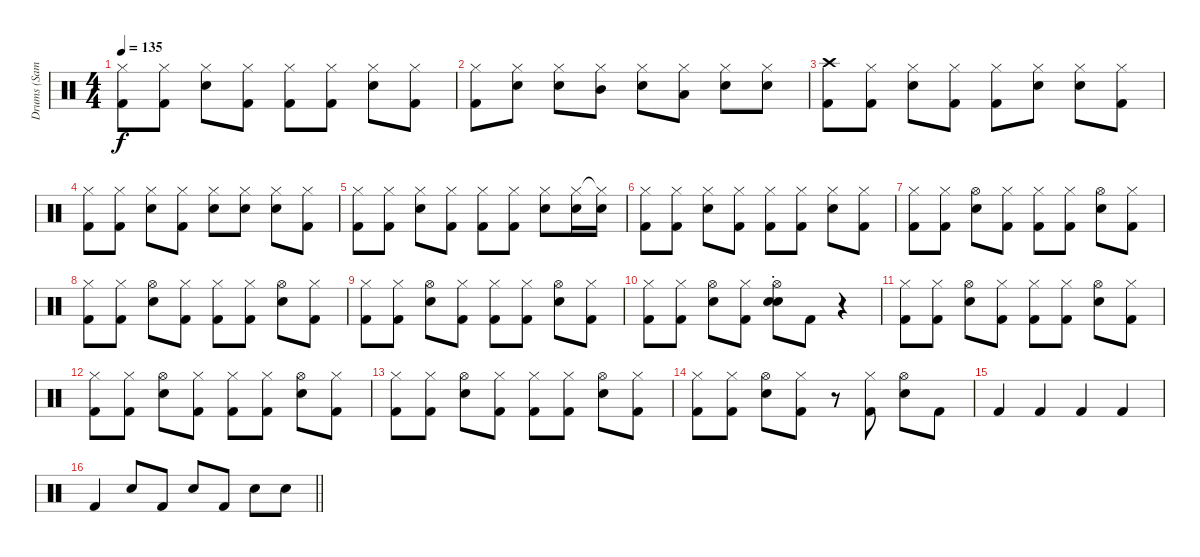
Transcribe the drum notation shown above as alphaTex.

\track ("Drums (Sam Fogarino)" "Drums (Sam") {instrument percussion}
\staff {score}
\articulation defaults
\ts (4 4)
\tempo 135
\clef neutral
\ks c
("Hi-Hat (closed)" "Kick (hit) 2").8{dy f} ("Hi-Hat (closed)" "Kick (hit) 2").8 ("Hi-Hat (closed)" "Snare (hit) 2").8 ("Hi-Hat (closed)" "Kick (hit) 2").8 ("Hi-Hat (closed)" "Kick (hit) 2").8 ("Hi-Hat (closed)" "Kick (hit) 2").8 ("Hi-Hat (closed)" "Snare (hit) 2").8 ("Hi-Hat (closed)" "Kick (hit) 2").8 |
("Hi-Hat (closed)" "Kick (hit) 2").8 ("Hi-Hat (closed)" "Snare (hit) 2").8 ("Hi-Hat (closed)" "Snare (hit) 2").8 ("Hi-Hat (closed)" "Mid Tom (hit)").8 ("Hi-Hat (closed)" "Snare (hit) 2").8 ("Hi-Hat (closed)" "Low Tom (hit)").8 ("Hi-Hat (closed)" "Snare (hit) 2").8 ("Hi-Hat (closed)" "Snare (hit) 2").8 |
("Crash high (hit)" "Kick (hit) 2").8 ("Hi-Hat (closed)" "Kick (hit) 2").8 ("Hi-Hat (closed)" "Snare (hit) 2").8 ("Hi-Hat (closed)" "Kick (hit) 2").8 ("Hi-Hat (closed)" "Kick (hit) 2").8 ("Hi-Hat (closed)" "Snare (hit) 2").8 ("Hi-Hat (closed)" "Snare (hit) 2").8 ("Hi-Hat (closed)" "Kick (hit) 2").8 |
("Hi-Hat (closed)" "Kick (hit) 2").8 ("Hi-Hat (closed)" "Kick (hit) 2").8 ("Hi-Hat (closed)" "Snare (hit) 2").8 ("Hi-Hat (closed)" "Kick (hit) 2").8 ("Hi-Hat (closed)" "Snare (hit) 2").8 ("Hi-Hat (closed)" "Snare (hit) 2").8 ("Hi-Hat (closed)" "Snare (hit) 2").8 ("Hi-Hat (closed)" "Kick (hit) 2").8 |
("Hi-Hat (closed)" "Kick (hit) 2").8 ("Hi-Hat (closed)" "Kick (hit) 2").8 ("Hi-Hat (closed)" "Snare (hit) 2").8 ("Hi-Hat (closed)" "Kick (hit) 2").8 ("Hi-Hat (closed)" "Kick (hit) 2").8 ("Hi-Hat (closed)" "Kick (hit) 2").8 ("Hi-Hat (closed)" "Snare (hit) 2").8 ("Hi-Hat (closed)" "Snare (hit) 2").16 ("Hi-Hat (closed)"{t} "Snare (hit) 2").16 |
("Hi-Hat (closed)" "Kick (hit) 2").8 ("Hi-Hat (closed)" "Kick (hit) 2").8 ("Hi-Hat (closed)" "Snare (hit) 2").8 ("Hi-Hat (closed)" "Kick (hit) 2").8 ("Hi-Hat (closed)" "Kick (hit) 2").8 ("Hi-Hat (closed)" "Kick (hit) 2").8 ("Hi-Hat (closed)" "Snare (hit) 2").8 ("Hi-Hat (closed)" "Kick (hit) 2").8 |
("Hi-Hat (closed)" "Kick (hit) 2").8 ("Hi-Hat (closed)" "Kick (hit) 2").8 ("Hi-Hat (open)" "Snare (hit) 2").8 ("Hi-Hat (closed)" "Kick (hit) 2").8 ("Hi-Hat (closed)" "Kick (hit) 2").8 ("Hi-Hat (closed)" "Kick (hit) 2").8 ("Hi-Hat (open)" "Snare (hit) 2").8 ("Hi-Hat (closed)" "Kick (hit) 2").8 |
("Hi-Hat (closed)" "Kick (hit) 2").8 ("Hi-Hat (closed)" "Kick (hit) 2").8 ("Hi-Hat (open)" "Snare (hit) 2").8 ("Hi-Hat (closed)" "Kick (hit) 2").8 ("Hi-Hat (closed)" "Kick (hit) 2").8 ("Hi-Hat (closed)" "Kick (hit) 2").8 ("Hi-Hat (open)" "Snare (hit) 2").8 ("Hi-Hat (closed)" "Kick (hit) 2").8 |
("Hi-Hat (closed)" "Kick (hit) 2").8 ("Hi-Hat (closed)" "Kick (hit) 2").8 ("Hi-Hat (open)" "Snare (hit) 2").8 ("Hi-Hat (closed)" "Kick (hit) 2").8 ("Hi-Hat (closed)" "Kick (hit) 2").8 ("Hi-Hat (closed)" "Kick (hit) 2").8 ("Hi-Hat (open)" "Snare (hit) 2").8 ("Hi-Hat (closed)" "Kick (hit) 2").8 |
("Hi-Hat (closed)" "Kick (hit) 2").8 ("Hi-Hat (closed)" "Kick (hit) 2").8 ("Hi-Hat (open)" "Snare (hit) 2").8 ("Hi-Hat (closed)" "Kick (hit) 2").8 ("Hi-Hat (open)"{st} "Snare (hit) 2" "Snare (hit) 2").8 "Kick (hit) 2".8 r.4 |
("Hi-Hat (closed)" "Kick (hit) 2").8 ("Hi-Hat (closed)" "Kick (hit) 2").8 ("Hi-Hat (open)" "Snare (hit) 2").8 ("Hi-Hat (closed)" "Kick (hit) 2").8 ("Hi-Hat (closed)" "Kick (hit) 2").8 ("Hi-Hat (closed)" "Kick (hit) 2").8 ("Hi-Hat (open)" "Snare (hit) 2").8 ("Hi-Hat (closed)" "Kick (hit) 2").8 |
("Hi-Hat (closed)" "Kick (hit) 2").8 ("Hi-Hat (closed)" "Kick (hit) 2").8 ("Hi-Hat (open)" "Snare (hit) 2").8 ("Hi-Hat (closed)" "Kick (hit) 2").8 ("Hi-Hat (closed)" "Kick (hit) 2").8 ("Hi-Hat (closed)" "Kick (hit) 2").8 ("Hi-Hat (open)" "Snare (hit) 2").8 ("Hi-Hat (closed)" "Kick (hit) 2").8 |
("Hi-Hat (closed)" "Kick (hit) 2").8 ("Hi-Hat (closed)" "Kick (hit) 2").8 ("Hi-Hat (open)" "Snare (hit) 2").8 ("Hi-Hat (closed)" "Kick (hit) 2").8 ("Hi-Hat (closed)" "Kick (hit) 2").8 ("Hi-Hat (closed)" "Kick (hit) 2").8 ("Hi-Hat (open)" "Snare (hit) 2").8 ("Hi-Hat (closed)" "Kick (hit) 2").8 |
("Hi-Hat (closed)" "Kick (hit) 2").8 ("Hi-Hat (closed)" "Kick (hit) 2").8 ("Hi-Hat (open)" "Snare (hit) 2").8 ("Hi-Hat (closed)" "Kick (hit) 2").8 r.8 ("Hi-Hat (closed)" "Kick (hit) 2").8 ("Hi-Hat (open)" "Snare (hit) 2").8 "Kick (hit) 2".8 |
"Kick (hit) 2".4 "Kick (hit) 2".4 "Kick (hit) 2".4 "Kick (hit) 2".4 |
\barLineRight lightlight "Kick (hit) 2".4 "Snare (hit) 2".8 "Kick (hit) 2".8 "Snare (hit) 2".8 "Kick (hit) 2".8 "Snare (hit) 2".8 "Snare (hit) 2".8
